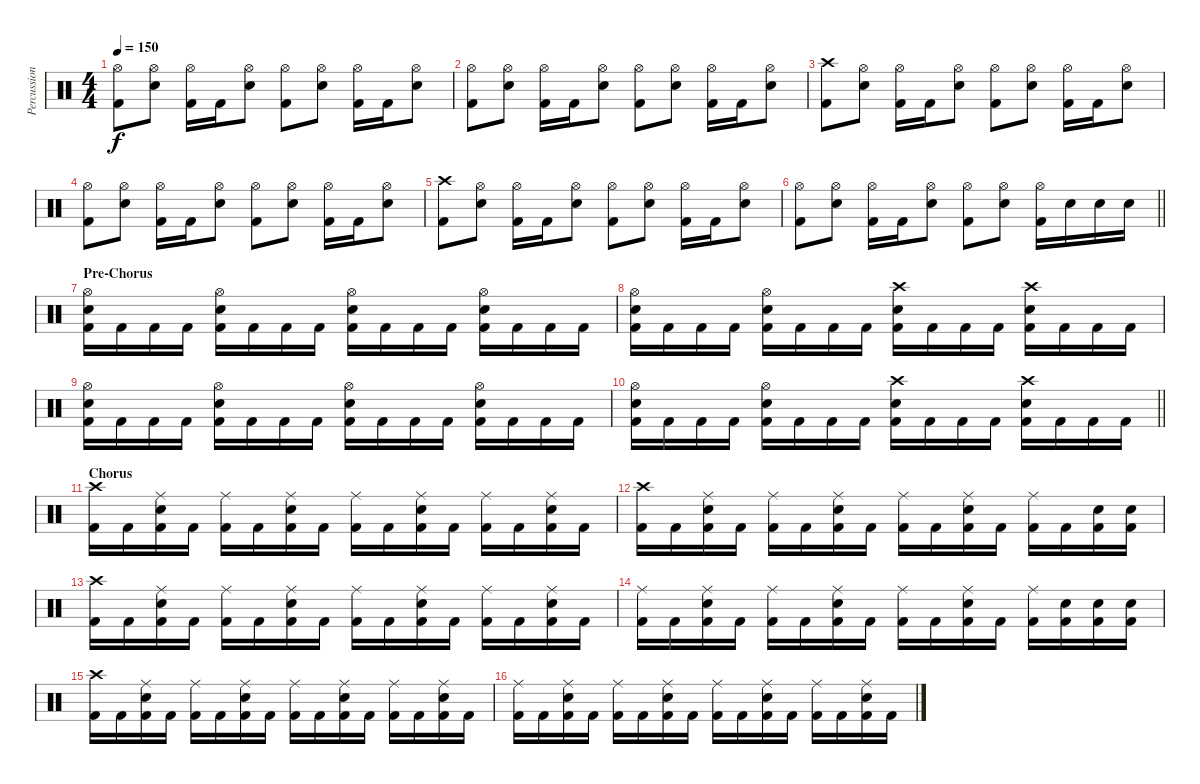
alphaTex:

\track ("Percussion" "Percussion") {instrument percussion}
\staff {score}
\articulation defaults
\ts (4 4)
\tempo 150
\clef neutral
\ks c
("Hi-Hat (open)" "Kick (hit) 2").8{dy f} ("Hi-Hat (open)" "Electric Snare (hit)").8 ("Hi-Hat (open)" "Kick (hit) 2").16 "Kick (hit) 2".16 ("Hi-Hat (open)" "Electric Snare (hit)").8 ("Hi-Hat (open)" "Kick (hit) 2").8 ("Hi-Hat (open)" "Electric Snare (hit)").8 ("Hi-Hat (open)" "Kick (hit) 2").16 "Kick (hit) 2".16 ("Hi-Hat (open)" "Electric Snare (hit)").8 |
("Hi-Hat (open)" "Kick (hit) 2").8 ("Hi-Hat (open)" "Electric Snare (hit)").8 ("Hi-Hat (open)" "Kick (hit) 2").16 "Kick (hit) 2".16 ("Hi-Hat (open)" "Electric Snare (hit)").8 ("Hi-Hat (open)" "Kick (hit) 2").8 ("Hi-Hat (open)" "Electric Snare (hit)").8 ("Hi-Hat (open)" "Kick (hit) 2").16 "Kick (hit) 2".16 ("Hi-Hat (open)" "Electric Snare (hit)").8 |
("Crash high (hit)" "Kick (hit) 2").8 ("Hi-Hat (open)" "Electric Snare (hit)").8 ("Hi-Hat (open)" "Kick (hit) 2").16 "Kick (hit) 2".16 ("Hi-Hat (open)" "Electric Snare (hit)").8 ("Hi-Hat (open)" "Kick (hit) 2").8 ("Hi-Hat (open)" "Electric Snare (hit)").8 ("Hi-Hat (open)" "Kick (hit) 2").16 "Kick (hit) 2".16 ("Hi-Hat (open)" "Electric Snare (hit)").8 |
("Hi-Hat (open)" "Kick (hit) 2").8 ("Hi-Hat (open)" "Electric Snare (hit)").8 ("Hi-Hat (open)" "Kick (hit) 2").16 "Kick (hit) 2".16 ("Hi-Hat (open)" "Electric Snare (hit)").8 ("Hi-Hat (open)" "Kick (hit) 2").8 ("Hi-Hat (open)" "Electric Snare (hit)").8 ("Hi-Hat (open)" "Kick (hit) 2").16 "Kick (hit) 2".16 ("Hi-Hat (open)" "Electric Snare (hit)").8 |
("Crash high (hit)" "Kick (hit) 2").8 ("Hi-Hat (open)" "Electric Snare (hit)").8 ("Hi-Hat (open)" "Kick (hit) 2").16 "Kick (hit) 2".16 ("Hi-Hat (open)" "Electric Snare (hit)").8 ("Hi-Hat (open)" "Kick (hit) 2").8 ("Hi-Hat (open)" "Electric Snare (hit)").8 ("Hi-Hat (open)" "Kick (hit) 2").16 "Kick (hit) 2".16 ("Hi-Hat (open)" "Electric Snare (hit)").8 |
\barLineRight lightlight
("Hi-Hat (open)" "Kick (hit) 2").8 ("Hi-Hat (open)" "Electric Snare (hit)").8 ("Hi-Hat (open)" "Kick (hit) 2").16 "Kick (hit) 2".16 ("Hi-Hat (open)" "Electric Snare (hit)").8 ("Hi-Hat (open)" "Kick (hit) 2").8 ("Hi-Hat (open)" "Electric Snare (hit)").8 ("Hi-Hat (open)" "Kick (hit) 2").16 "Electric Snare (hit)".16 "Electric Snare (hit)".16 "Electric Snare (hit)".16 |
\section ("" "Pre-Chorus")
("Hi-Hat (open)" "Electric Snare (hit)" "Kick (hit) 2").16 "Kick (hit) 2".16 "Kick (hit) 2".16 "Kick (hit) 2".16 ("Hi-Hat (open)" "Electric Snare (hit)" "Kick (hit) 2").16 "Kick (hit) 2".16 "Kick (hit) 2".16 "Kick (hit) 2".16 ("Hi-Hat (open)" "Electric Snare (hit)" "Kick (hit) 2").16 "Kick (hit) 2".16 "Kick (hit) 2".16 "Kick (hit) 2".16 ("Hi-Hat (open)" "Electric Snare (hit)" "Kick (hit) 2").16 "Kick (hit) 2".16 "Kick (hit) 2".16 "Kick (hit) 2".16 |
("Hi-Hat (open)" "Electric Snare (hit)" "Kick (hit) 2").16 "Kick (hit) 2".16 "Kick (hit) 2".16 "Kick (hit) 2".16 ("Hi-Hat (open)" "Electric Snare (hit)" "Kick (hit) 2").16 "Kick (hit) 2".16 "Kick (hit) 2".16 "Kick (hit) 2".16 ("Crash high (hit)" "Electric Snare (hit)" "Kick (hit) 2").16 "Kick (hit) 2".16 "Kick (hit) 2".16 "Kick (hit) 2".16 ("Crash high (hit)" "Electric Snare (hit)" "Kick (hit) 2").16 "Kick (hit) 2".16 "Kick (hit) 2".16 "Kick (hit) 2".16 |
("Hi-Hat (open)" "Electric Snare (hit)" "Kick (hit) 2").16 "Kick (hit) 2".16 "Kick (hit) 2".16 "Kick (hit) 2".16 ("Hi-Hat (open)" "Electric Snare (hit)" "Kick (hit) 2").16 "Kick (hit) 2".16 "Kick (hit) 2".16 "Kick (hit) 2".16 ("Hi-Hat (open)" "Electric Snare (hit)" "Kick (hit) 2").16 "Kick (hit) 2".16 "Kick (hit) 2".16 "Kick (hit) 2".16 ("Hi-Hat (open)" "Electric Snare (hit)" "Kick (hit) 2").16 "Kick (hit) 2".16 "Kick (hit) 2".16 "Kick (hit) 2".16 |
\barLineRight lightlight
("Hi-Hat (open)" "Electric Snare (hit)" "Kick (hit) 2").16 "Kick (hit) 2".16 "Kick (hit) 2".16 "Kick (hit) 2".16 ("Hi-Hat (open)" "Electric Snare (hit)" "Kick (hit) 2").16 "Kick (hit) 2".16 "Kick (hit) 2".16 "Kick (hit) 2".16 ("Crash high (hit)" "Electric Snare (hit)" "Kick (hit) 2").16 "Kick (hit) 2".16 "Kick (hit) 2".16 "Kick (hit) 2".16 ("Crash high (hit)" "Electric Snare (hit)" "Kick (hit) 2").16 "Kick (hit) 2".16 "Kick (hit) 2".16 "Kick (hit) 2".16 |
\section ("" "Chorus")
("Crash high (hit)" "Kick (hit) 2").16 "Kick (hit) 2".16 ("Ride (middle)" "Electric Snare (hit)" "Kick (hit) 2").16 "Kick (hit) 2".16 ("Ride (middle)" "Kick (hit) 2").16 "Kick (hit) 2".16 ("Ride (middle)" "Electric Snare (hit)" "Kick (hit) 2").16 "Kick (hit) 2".16 ("Ride (middle)" "Kick (hit) 2").16 "Kick (hit) 2".16 ("Ride (middle)" "Electric Snare (hit)" "Kick (hit) 2").16 "Kick (hit) 2".16 ("Ride (middle)" "Kick (hit) 2").16 "Kick (hit) 2".16 ("Ride (middle)" "Electric Snare (hit)" "Kick (hit) 2").16 "Kick (hit) 2".16 |
("Crash high (hit)" "Kick (hit) 2").16 "Kick (hit) 2".16 ("Ride (middle)" "Electric Snare (hit)" "Kick (hit) 2").16 "Kick (hit) 2".16 ("Ride (middle)" "Kick (hit) 2").16 "Kick (hit) 2".16 ("Ride (middle)" "Electric Snare (hit)" "Kick (hit) 2").16 "Kick (hit) 2".16 ("Ride (middle)" "Kick (hit) 2").16 "Kick (hit) 2".16 ("Ride (middle)" "Electric Snare (hit)" "Kick (hit) 2").16 "Kick (hit) 2".16 ("Ride (middle)" "Kick (hit) 2").16 "Kick (hit) 2".16 ("Electric Snare (hit)" "Kick (hit) 2").16 ("Electric Snare (hit)" "Kick (hit) 2").16 |
("Crash high (hit)" "Kick (hit) 2").16 "Kick (hit) 2".16 ("Ride (middle)" "Electric Snare (hit)" "Kick (hit) 2").16 "Kick (hit) 2".16 ("Ride (middle)" "Kick (hit) 2").16 "Kick (hit) 2".16 ("Ride (middle)" "Electric Snare (hit)" "Kick (hit) 2").16 "Kick (hit) 2".16 ("Ride (middle)" "Kick (hit) 2").16 "Kick (hit) 2".16 ("Ride (middle)" "Electric Snare (hit)" "Kick (hit) 2").16 "Kick (hit) 2".16 ("Ride (middle)" "Kick (hit) 2").16 "Kick (hit) 2".16 ("Ride (middle)" "Electric Snare (hit)" "Kick (hit) 2").16 "Kick (hit) 2".16 |
("Ride (middle)" "Kick (hit) 2").16 "Kick (hit) 2".16 ("Ride (middle)" "Electric Snare (hit)" "Kick (hit) 2").16 "Kick (hit) 2".16 ("Ride (middle)" "Kick (hit) 2").16 "Kick (hit) 2".16 ("Ride (middle)" "Electric Snare (hit)" "Kick (hit) 2").16 "Kick (hit) 2".16 ("Ride (middle)" "Kick (hit) 2").16 "Kick (hit) 2".16 ("Ride (middle)" "Electric Snare (hit)" "Kick (hit) 2").16 "Kick (hit) 2".16 ("Ride (middle)" "Kick (hit) 2").16 ("Electric Snare (hit)" "Kick (hit) 2").16 ("Electric Snare (hit)" "Kick (hit) 2").16 ("Electric Snare (hit)" "Kick (hit) 2").16 |
("Crash high (hit)" "Kick (hit) 2").16 "Kick (hit) 2".16 ("Ride (middle)" "Electric Snare (hit)" "Kick (hit) 2").16 "Kick (hit) 2".16 ("Ride (middle)" "Kick (hit) 2").16 "Kick (hit) 2".16 ("Ride (middle)" "Electric Snare (hit)" "Kick (hit) 2").16 "Kick (hit) 2".16 ("Ride (middle)" "Kick (hit) 2").16 "Kick (hit) 2".16 ("Ride (middle)" "Electric Snare (hit)" "Kick (hit) 2").16 "Kick (hit) 2".16 ("Ride (middle)" "Kick (hit) 2").16 "Kick (hit) 2".16 ("Ride (middle)" "Electric Snare (hit)" "Kick (hit) 2").16 "Kick (hit) 2".16 |
("Ride (middle)" "Kick (hit) 2").16 "Kick (hit) 2".16 ("Ride (middle)" "Electric Snare (hit)" "Kick (hit) 2").16 "Kick (hit) 2".16 ("Ride (middle)" "Kick (hit) 2").16 "Kick (hit) 2".16 ("Ride (middle)" "Electric Snare (hit)" "Kick (hit) 2").16 "Kick (hit) 2".16 ("Ride (middle)" "Kick (hit) 2").16 "Kick (hit) 2".16 ("Ride (middle)" "Electric Snare (hit)" "Kick (hit) 2").16 "Kick (hit) 2".16 ("Ride (middle)" "Kick (hit) 2").16 "Kick (hit) 2".16 ("Ride (middle)" "Electric Snare (hit)" "Kick (hit) 2").16 "Kick (hit) 2".16
